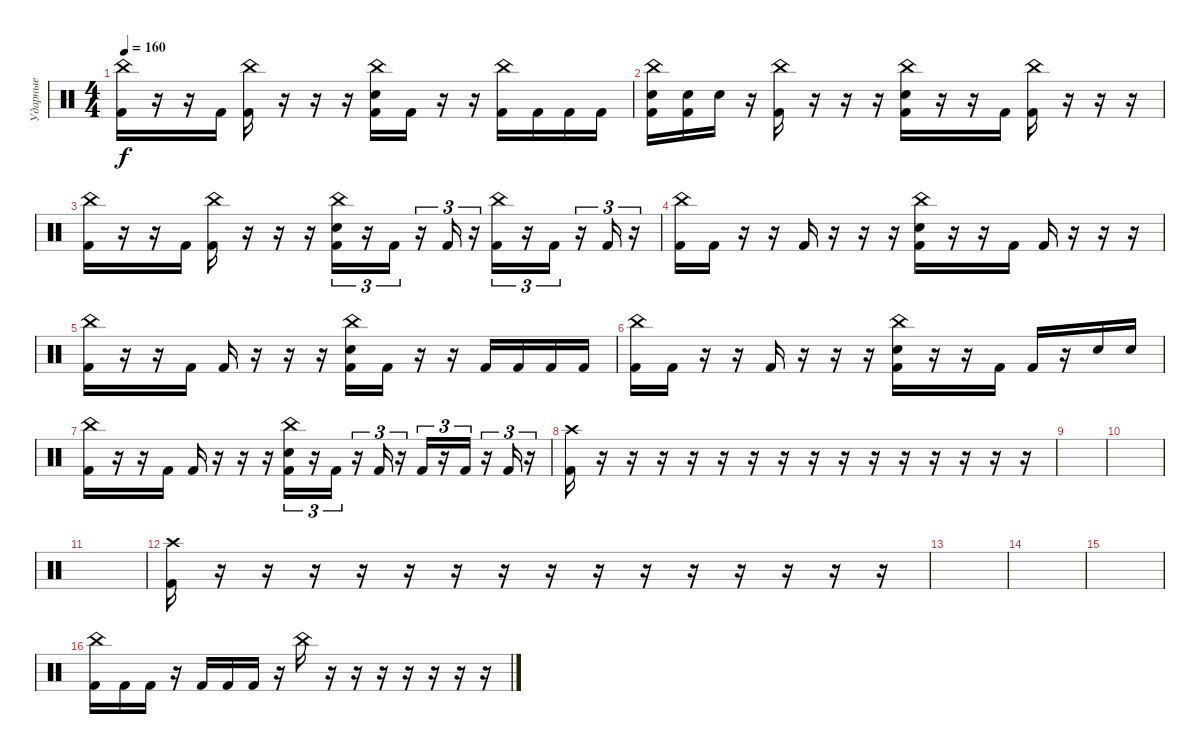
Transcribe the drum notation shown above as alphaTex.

\track ("Ударные" "Ударные") {instrument percussion}
\staff {score}
\articulation defaults
\ts (4 4)
\tempo 160
\clef neutral
\ks c
("China (hit)" "Kick (hit) 2").16{dy f} r.16 r.16 "Kick (hit) 2".16 ("China (hit)" "Kick (hit) 2").16 r.16 r.16 r.16 ("China (hit)" "Electric Snare (hit)" "Kick (hit) 2").16 "Kick (hit) 2".16 r.16 r.16 ("China (hit)" "Kick (hit) 2").16 "Kick (hit) 2".16 "Kick (hit) 2".16 "Kick (hit) 2".16 |
("China (hit)" "Electric Snare (hit)" "Kick (hit) 2").16 ("Electric Snare (hit)" "Kick (hit) 2").16 "Electric Snare (hit)".16 r.16 ("China (hit)" "Kick (hit) 2").16 r.16 r.16 r.16 ("China (hit)" "Electric Snare (hit)" "Kick (hit) 2").16 r.16 r.16 "Kick (hit) 2".16 ("China (hit)" "Kick (hit) 2").16 r.16 r.16 r.16 |
("China (hit)" "Kick (hit) 2").16 r.16 r.16 "Kick (hit) 2".16 ("China (hit)" "Kick (hit) 2").16 r.16 r.16 r.16 ("China (hit)" "Electric Snare (hit)" "Kick (hit) 2").16{tu (3 2)} r.16{tu (3 2)} "Kick (hit) 2".16{tu (3 2)} r.16{tu (3 2)} "Kick (hit) 2".16{tu (3 2)} r.16{tu (3 2)} ("China (hit)" "Kick (hit) 2").16{tu (3 2)} r.16{tu (3 2)} "Kick (hit) 2".16{tu (3 2)} r.16{tu (3 2)} "Kick (hit) 2".16{tu (3 2)} r.16{tu (3 2)} |
("China (hit)" "Kick (hit) 2").16 "Kick (hit) 2".16 r.16 r.16 "Kick (hit) 2".16 r.16 r.16 r.16 ("China (hit)" "Electric Snare (hit)" "Kick (hit) 2").16 r.16 r.16 "Kick (hit) 2".16 "Kick (hit) 2".16 r.16 r.16 r.16 |
("China (hit)" "Kick (hit) 2").16 r.16 r.16 "Kick (hit) 2".16 "Kick (hit) 2".16 r.16 r.16 r.16 ("China (hit)" "Electric Snare (hit)" "Kick (hit) 2").16 "Kick (hit) 2".16 r.16 r.16 "Kick (hit) 2".16 "Kick (hit) 2".16 "Kick (hit) 2".16 "Kick (hit) 2".16 |
("China (hit)" "Kick (hit) 2").16 "Kick (hit) 2".16 r.16 r.16 "Kick (hit) 2".16 r.16 r.16 r.16 ("China (hit)" "Electric Snare (hit)" "Kick (hit) 2").16 r.16 r.16 "Kick (hit) 2".16 "Kick (hit) 2".16 r.16 "Electric Snare (hit)".16 "Electric Snare (hit)".16 |
("China (hit)" "Kick (hit) 2").16 r.16 r.16 "Kick (hit) 2".16 "Kick (hit) 2".16 r.16 r.16 r.16 ("China (hit)" "Electric Snare (hit)" "Kick (hit) 2").16{tu (3 2)} r.16{tu (3 2)} "Kick (hit) 2".16{tu (3 2)} r.16{tu (3 2)} "Kick (hit) 2".16{tu (3 2)} r.16{tu (3 2)} "Kick (hit) 2".16{tu (3 2)} r.16{tu (3 2)} "Kick (hit) 2".16{tu (3 2)} r.16{tu (3 2)} "Kick (hit) 2".16{tu (3 2)} r.16{tu (3 2)} |
("Crash high (hit)" "Kick (hit) 2").16 r.16 r.16 r.16 r.16 r.16 r.16 r.16 r.16 r.16 r.16 r.16 r.16 r.16 r.16 r.16 |
|
|
|
("Crash high (hit)" "Kick (hit) 2").16 r.16 r.16 r.16 r.16 r.16 r.16 r.16 r.16 r.16 r.16 r.16 r.16 r.16 r.16 r.16 |
|
|
|
("China (hit)" "Kick (hit) 2").16 "Kick (hit) 2".16 "Kick (hit) 2".16 r.16 "Kick (hit) 2".16 "Kick (hit) 2".16 "Kick (hit) 2".16 r.16 "China (hit)".16 r.16 r.16 r.16 r.16 r.16 r.16 r.16
